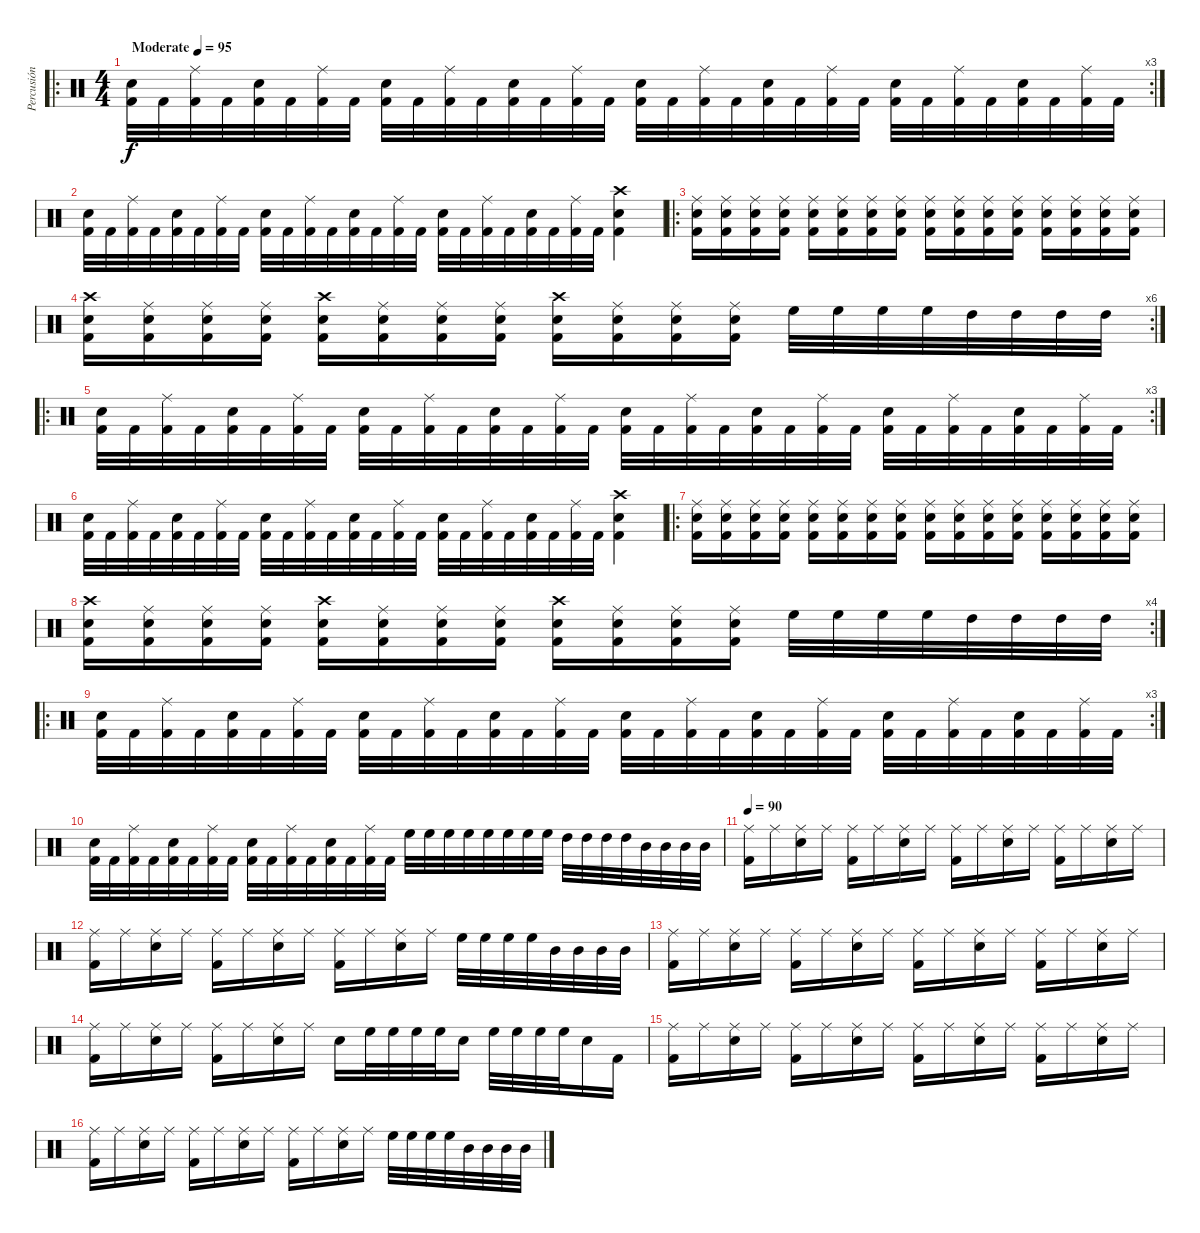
\track ("Percusión" "Percusión") {instrument percussion}
\staff {score}
\articulation defaults
\ro
\rc 3
\ts (4 4)
\tempo (95 "Moderate")
\clef neutral
\ks c
("Electric Snare (hit)" "Kick (hit) 2").32{dy f} "Kick (hit) 2".32 ("Ride (middle)" "Kick (hit) 2").32 "Kick (hit) 2".32 ("Electric Snare (hit)" "Kick (hit) 2").32 "Kick (hit) 2".32 ("Ride (middle)" "Kick (hit) 2").32 "Kick (hit) 2".32 ("Electric Snare (hit)" "Kick (hit) 2").32 "Kick (hit) 2".32 ("Ride (middle)" "Kick (hit) 2").32 "Kick (hit) 2".32 ("Electric Snare (hit)" "Kick (hit) 2").32 "Kick (hit) 2".32 ("Ride (middle)" "Kick (hit) 2").32 "Kick (hit) 2".32 ("Electric Snare (hit)" "Kick (hit) 2").32 "Kick (hit) 2".32 ("Ride (middle)" "Kick (hit) 2").32 "Kick (hit) 2".32 ("Electric Snare (hit)" "Kick (hit) 2").32 "Kick (hit) 2".32 ("Ride (middle)" "Kick (hit) 2").32 "Kick (hit) 2".32 ("Electric Snare (hit)" "Kick (hit) 2").32 "Kick (hit) 2".32 ("Ride (middle)" "Kick (hit) 2").32 "Kick (hit) 2".32 ("Electric Snare (hit)" "Kick (hit) 2").32 "Kick (hit) 2".32 ("Ride (middle)" "Kick (hit) 2").32 "Kick (hit) 2".32 |
("Electric Snare (hit)" "Kick (hit) 2").32 "Kick (hit) 2".32 ("Ride (middle)" "Kick (hit) 2").32 "Kick (hit) 2".32 ("Electric Snare (hit)" "Kick (hit) 2").32 "Kick (hit) 2".32 ("Ride (middle)" "Kick (hit) 2").32 "Kick (hit) 2".32 ("Electric Snare (hit)" "Kick (hit) 2").32 "Kick (hit) 2".32 ("Ride (middle)" "Kick (hit) 2").32 "Kick (hit) 2".32 ("Electric Snare (hit)" "Kick (hit) 2").32 "Kick (hit) 2".32 ("Ride (middle)" "Kick (hit) 2").32 "Kick (hit) 2".32 ("Electric Snare (hit)" "Kick (hit) 2").32 "Kick (hit) 2".32 ("Ride (middle)" "Kick (hit) 2").32 "Kick (hit) 2".32 ("Electric Snare (hit)" "Kick (hit) 2").32 "Kick (hit) 2".32 ("Ride (middle)" "Kick (hit) 2").32 "Kick (hit) 2".32 ("Crash high (hit)" "Electric Snare (hit)" "Kick (hit) 2").4 |
\ro
("Ride (middle)" "Electric Snare (hit)" "Kick (hit) 2").16 ("Ride (middle)" "Electric Snare (hit)" "Kick (hit) 2").16 ("Ride (middle)" "Electric Snare (hit)" "Kick (hit) 2").16 ("Ride (middle)" "Electric Snare (hit)" "Kick (hit) 2").16 ("Ride (middle)" "Electric Snare (hit)" "Kick (hit) 2").16 ("Ride (middle)" "Electric Snare (hit)" "Kick (hit) 2").16 ("Ride (middle)" "Electric Snare (hit)" "Kick (hit) 2").16 ("Ride (middle)" "Electric Snare (hit)" "Kick (hit) 2").16 ("Ride (middle)" "Electric Snare (hit)" "Kick (hit) 2").16 ("Ride (middle)" "Electric Snare (hit)" "Kick (hit) 2").16 ("Ride (middle)" "Electric Snare (hit)" "Kick (hit) 2").16 ("Ride (middle)" "Electric Snare (hit)" "Kick (hit) 2").16 ("Ride (middle)" "Electric Snare (hit)" "Kick (hit) 2").16 ("Ride (middle)" "Electric Snare (hit)" "Kick (hit) 2").16 ("Ride (middle)" "Electric Snare (hit)" "Kick (hit) 2").16 ("Ride (middle)" "Electric Snare (hit)" "Kick (hit) 2").16 |
\rc 6
("Crash high (hit)" "Electric Snare (hit)" "Kick (hit) 2").16 ("Ride (middle)" "Electric Snare (hit)" "Kick (hit) 2").16 ("Ride (middle)" "Electric Snare (hit)" "Kick (hit) 2").16 ("Ride (middle)" "Electric Snare (hit)" "Kick (hit) 2").16 ("Crash high (hit)" "Electric Snare (hit)" "Kick (hit) 2").16 ("Ride (middle)" "Electric Snare (hit)" "Kick (hit) 2").16 ("Ride (middle)" "Electric Snare (hit)" "Kick (hit) 2").16 ("Ride (middle)" "Electric Snare (hit)" "Kick (hit) 2").16 ("Crash high (hit)" "Electric Snare (hit)" "Kick (hit) 2").16 ("Ride (middle)" "Electric Snare (hit)" "Kick (hit) 2").16 ("Ride (middle)" "Electric Snare (hit)" "Kick (hit) 2").16 ("Ride (middle)" "Electric Snare (hit)" "Kick (hit) 2").16 "High Floor Tom (hit)".32 "High Floor Tom (hit)".32 "High Floor Tom (hit)".32 "High Floor Tom (hit)".32 "High Tom (hit)".32 "High Tom (hit)".32 "High Tom (hit)".32 "High Tom (hit)".32 |
\ro
\rc 3
("Electric Snare (hit)" "Kick (hit) 2").32 "Kick (hit) 2".32 ("Ride (middle)" "Kick (hit) 2").32 "Kick (hit) 2".32 ("Electric Snare (hit)" "Kick (hit) 2").32 "Kick (hit) 2".32 ("Ride (middle)" "Kick (hit) 2").32 "Kick (hit) 2".32 ("Electric Snare (hit)" "Kick (hit) 2").32 "Kick (hit) 2".32 ("Ride (middle)" "Kick (hit) 2").32 "Kick (hit) 2".32 ("Electric Snare (hit)" "Kick (hit) 2").32 "Kick (hit) 2".32 ("Ride (middle)" "Kick (hit) 2").32 "Kick (hit) 2".32 ("Electric Snare (hit)" "Kick (hit) 2").32 "Kick (hit) 2".32 ("Ride (middle)" "Kick (hit) 2").32 "Kick (hit) 2".32 ("Electric Snare (hit)" "Kick (hit) 2").32 "Kick (hit) 2".32 ("Ride (middle)" "Kick (hit) 2").32 "Kick (hit) 2".32 ("Electric Snare (hit)" "Kick (hit) 2").32 "Kick (hit) 2".32 ("Ride (middle)" "Kick (hit) 2").32 "Kick (hit) 2".32 ("Electric Snare (hit)" "Kick (hit) 2").32 "Kick (hit) 2".32 ("Ride (middle)" "Kick (hit) 2").32 "Kick (hit) 2".32 |
("Electric Snare (hit)" "Kick (hit) 2").32 "Kick (hit) 2".32 ("Ride (middle)" "Kick (hit) 2").32 "Kick (hit) 2".32 ("Electric Snare (hit)" "Kick (hit) 2").32 "Kick (hit) 2".32 ("Ride (middle)" "Kick (hit) 2").32 "Kick (hit) 2".32 ("Electric Snare (hit)" "Kick (hit) 2").32 "Kick (hit) 2".32 ("Ride (middle)" "Kick (hit) 2").32 "Kick (hit) 2".32 ("Electric Snare (hit)" "Kick (hit) 2").32 "Kick (hit) 2".32 ("Ride (middle)" "Kick (hit) 2").32 "Kick (hit) 2".32 ("Electric Snare (hit)" "Kick (hit) 2").32 "Kick (hit) 2".32 ("Ride (middle)" "Kick (hit) 2").32 "Kick (hit) 2".32 ("Electric Snare (hit)" "Kick (hit) 2").32 "Kick (hit) 2".32 ("Ride (middle)" "Kick (hit) 2").32 "Kick (hit) 2".32 ("Crash high (hit)" "Electric Snare (hit)" "Kick (hit) 2").4 |
\ro
("Ride (middle)" "Electric Snare (hit)" "Kick (hit) 2").16 ("Ride (middle)" "Electric Snare (hit)" "Kick (hit) 2").16 ("Ride (middle)" "Electric Snare (hit)" "Kick (hit) 2").16 ("Ride (middle)" "Electric Snare (hit)" "Kick (hit) 2").16 ("Ride (middle)" "Electric Snare (hit)" "Kick (hit) 2").16 ("Ride (middle)" "Electric Snare (hit)" "Kick (hit) 2").16 ("Ride (middle)" "Electric Snare (hit)" "Kick (hit) 2").16 ("Ride (middle)" "Electric Snare (hit)" "Kick (hit) 2").16 ("Ride (middle)" "Electric Snare (hit)" "Kick (hit) 2").16 ("Ride (middle)" "Electric Snare (hit)" "Kick (hit) 2").16 ("Ride (middle)" "Electric Snare (hit)" "Kick (hit) 2").16 ("Ride (middle)" "Electric Snare (hit)" "Kick (hit) 2").16 ("Ride (middle)" "Electric Snare (hit)" "Kick (hit) 2").16 ("Ride (middle)" "Electric Snare (hit)" "Kick (hit) 2").16 ("Ride (middle)" "Electric Snare (hit)" "Kick (hit) 2").16 ("Ride (middle)" "Electric Snare (hit)" "Kick (hit) 2").16 |
\rc 4
("Crash high (hit)" "Electric Snare (hit)" "Kick (hit) 2").16 ("Ride (middle)" "Electric Snare (hit)" "Kick (hit) 2").16 ("Ride (middle)" "Electric Snare (hit)" "Kick (hit) 2").16 ("Ride (middle)" "Electric Snare (hit)" "Kick (hit) 2").16 ("Crash high (hit)" "Electric Snare (hit)" "Kick (hit) 2").16 ("Ride (middle)" "Electric Snare (hit)" "Kick (hit) 2").16 ("Ride (middle)" "Electric Snare (hit)" "Kick (hit) 2").16 ("Ride (middle)" "Electric Snare (hit)" "Kick (hit) 2").16 ("Crash high (hit)" "Electric Snare (hit)" "Kick (hit) 2").16 ("Ride (middle)" "Electric Snare (hit)" "Kick (hit) 2").16 ("Ride (middle)" "Electric Snare (hit)" "Kick (hit) 2").16 ("Ride (middle)" "Electric Snare (hit)" "Kick (hit) 2").16 "High Floor Tom (hit)".32 "High Floor Tom (hit)".32 "High Floor Tom (hit)".32 "High Floor Tom (hit)".32 "High Tom (hit)".32 "High Tom (hit)".32 "High Tom (hit)".32 "High Tom (hit)".32 |
\ro
\rc 3
("Electric Snare (hit)" "Kick (hit) 2").32 "Kick (hit) 2".32 ("Ride (middle)" "Kick (hit) 2").32 "Kick (hit) 2".32 ("Electric Snare (hit)" "Kick (hit) 2").32 "Kick (hit) 2".32 ("Ride (middle)" "Kick (hit) 2").32 "Kick (hit) 2".32 ("Electric Snare (hit)" "Kick (hit) 2").32 "Kick (hit) 2".32 ("Ride (middle)" "Kick (hit) 2").32 "Kick (hit) 2".32 ("Electric Snare (hit)" "Kick (hit) 2").32 "Kick (hit) 2".32 ("Ride (middle)" "Kick (hit) 2").32 "Kick (hit) 2".32 ("Electric Snare (hit)" "Kick (hit) 2").32 "Kick (hit) 2".32 ("Ride (middle)" "Kick (hit) 2").32 "Kick (hit) 2".32 ("Electric Snare (hit)" "Kick (hit) 2").32 "Kick (hit) 2".32 ("Ride (middle)" "Kick (hit) 2").32 "Kick (hit) 2".32 ("Electric Snare (hit)" "Kick (hit) 2").32 "Kick (hit) 2".32 ("Ride (middle)" "Kick (hit) 2").32 "Kick (hit) 2".32 ("Electric Snare (hit)" "Kick (hit) 2").32 "Kick (hit) 2".32 ("Ride (middle)" "Kick (hit) 2").32 "Kick (hit) 2".32 |
("Electric Snare (hit)" "Kick (hit) 2").32 "Kick (hit) 2".32 ("Ride (middle)" "Kick (hit) 2").32 "Kick (hit) 2".32 ("Electric Snare (hit)" "Kick (hit) 2").32 "Kick (hit) 2".32 ("Ride (middle)" "Kick (hit) 2").32 "Kick (hit) 2".32 ("Electric Snare (hit)" "Kick (hit) 2").32 "Kick (hit) 2".32 ("Ride (middle)" "Kick (hit) 2").32 "Kick (hit) 2".32 ("Electric Snare (hit)" "Kick (hit) 2").32 "Kick (hit) 2".32 ("Ride (middle)" "Kick (hit) 2").32 "Kick (hit) 2".32 "High Floor Tom (hit)".32 "High Floor Tom (hit)".32 "High Floor Tom (hit)".32 "High Floor Tom (hit)".32 "High Floor Tom (hit)".32 "High Floor Tom (hit)".32 "High Floor Tom (hit)".32 "High Floor Tom (hit)".32 "High Tom (hit)".32 "High Tom (hit)".32 "High Tom (hit)".32 "High Tom (hit)".32 "Mid Tom (hit)".32 "Mid Tom (hit)".32 "Mid Tom (hit)".32 "Mid Tom (hit)".32 |
\tempo 90
("Ride (middle)" "Kick (hit) 2").16 "Ride (middle)".16 ("Ride (middle)" "Electric Snare (hit)").16 "Ride (middle)".16 ("Ride (middle)" "Kick (hit) 2").16 "Ride (middle)".16 ("Ride (middle)" "Electric Snare (hit)").16 "Ride (middle)".16 ("Ride (middle)" "Kick (hit) 2").16 "Ride (middle)".16 ("Ride (middle)" "Electric Snare (hit)").16 "Ride (middle)".16 ("Ride (middle)" "Kick (hit) 2").16 "Ride (middle)".16 ("Ride (middle)" "Electric Snare (hit)").16 "Ride (middle)".16 |
("Ride (middle)" "Kick (hit) 2").16 "Ride (middle)".16 ("Ride (middle)" "Electric Snare (hit)").16 "Ride (middle)".16 ("Ride (middle)" "Kick (hit) 2").16 "Ride (middle)".16 ("Ride (middle)" "Electric Snare (hit)").16 "Ride (middle)".16 ("Ride (middle)" "Kick (hit) 2").16 "Ride (middle)".16 ("Ride (middle)" "Electric Snare (hit)").16 "Ride (middle)".16 "High Floor Tom (hit)".32 "High Floor Tom (hit)".32 "High Floor Tom (hit)".32 "High Floor Tom (hit)".32 "Mid Tom (hit)".32 "Mid Tom (hit)".32 "Mid Tom (hit)".32 "Mid Tom (hit)".32 |
("Ride (middle)" "Kick (hit) 2").16 "Ride (middle)".16 ("Ride (middle)" "Electric Snare (hit)").16 "Ride (middle)".16 ("Ride (middle)" "Kick (hit) 2").16 "Ride (middle)".16 ("Ride (middle)" "Electric Snare (hit)").16 "Ride (middle)".16 ("Ride (middle)" "Kick (hit) 2").16 "Ride (middle)".16 ("Ride (middle)" "Electric Snare (hit)").16 "Ride (middle)".16 ("Ride (middle)" "Kick (hit) 2").16 "Ride (middle)".16 ("Ride (middle)" "Electric Snare (hit)").16 "Ride (middle)".16 |
("Ride (middle)" "Kick (hit) 2").16 "Ride (middle)".16 ("Ride (middle)" "Electric Snare (hit)").16 "Ride (middle)".16 ("Ride (middle)" "Kick (hit) 2").16 "Ride (middle)".16 ("Ride (middle)" "Electric Snare (hit)").16 "Ride (middle)".16 "Electric Snare (hit)".16 "High Floor Tom (hit)".32 "High Floor Tom (hit)".32 "High Floor Tom (hit)".32 "High Floor Tom (hit)".32 "Electric Snare (hit)".16 "High Floor Tom (hit)".32 "High Floor Tom (hit)".32 "High Floor Tom (hit)".32 "High Floor Tom (hit)".32 "Electric Snare (hit)".16 "Kick (hit) 2".16 |
("Ride (middle)" "Kick (hit) 2").16 "Ride (middle)".16 ("Ride (middle)" "Electric Snare (hit)").16 "Ride (middle)".16 ("Ride (middle)" "Kick (hit) 2").16 "Ride (middle)".16 ("Ride (middle)" "Electric Snare (hit)").16 "Ride (middle)".16 ("Ride (middle)" "Kick (hit) 2").16 "Ride (middle)".16 ("Ride (middle)" "Electric Snare (hit)").16 "Ride (middle)".16 ("Ride (middle)" "Kick (hit) 2").16 "Ride (middle)".16 ("Ride (middle)" "Electric Snare (hit)").16 "Ride (middle)".16 |
("Ride (middle)" "Kick (hit) 2").16 "Ride (middle)".16 ("Ride (middle)" "Electric Snare (hit)").16 "Ride (middle)".16 ("Ride (middle)" "Kick (hit) 2").16 "Ride (middle)".16 ("Ride (middle)" "Electric Snare (hit)").16 "Ride (middle)".16 ("Ride (middle)" "Kick (hit) 2").16 "Ride (middle)".16 ("Ride (middle)" "Electric Snare (hit)").16 "Ride (middle)".16 "High Floor Tom (hit)".32 "High Floor Tom (hit)".32 "High Floor Tom (hit)".32 "High Floor Tom (hit)".32 "Mid Tom (hit)".32 "Mid Tom (hit)".32 "Mid Tom (hit)".32 "Mid Tom (hit)".32
